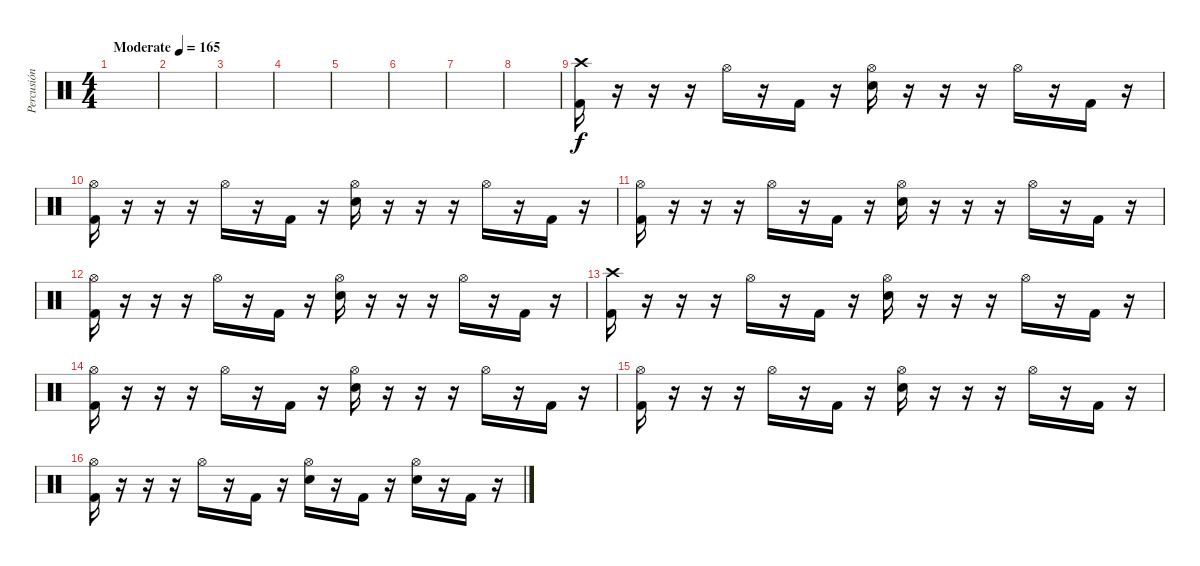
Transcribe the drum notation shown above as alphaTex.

\track ("Percusión" "Percusión") {instrument percussion}
\staff {score}
\articulation defaults
\ts (4 4)
\tempo (165 "Moderate")
\clef neutral
\ks c
|
|
|
|
|
|
|
|
("Crash high (hit)" "Kick (hit) 2").16 r.16 r.16 r.16 "Hi-Hat (open)".16 r.16 "Kick (hit) 2".16 r.16 ("Hi-Hat (open)" "Electric Snare (hit)").16 r.16 r.16 r.16 "Hi-Hat (open)".16 r.16 "Kick (hit) 2".16 r.16 |
("Hi-Hat (open)" "Kick (hit) 2").16 r.16 r.16 r.16 "Hi-Hat (open)".16 r.16 "Kick (hit) 2".16 r.16 ("Hi-Hat (open)" "Electric Snare (hit)").16 r.16 r.16 r.16 "Hi-Hat (open)".16 r.16 "Kick (hit) 2".16 r.16 |
("Hi-Hat (open)" "Kick (hit) 2").16 r.16 r.16 r.16 "Hi-Hat (open)".16 r.16 "Kick (hit) 2".16 r.16 ("Hi-Hat (open)" "Electric Snare (hit)").16 r.16 r.16 r.16 "Hi-Hat (open)".16 r.16 "Kick (hit) 2".16 r.16 |
("Hi-Hat (open)" "Kick (hit) 2").16 r.16 r.16 r.16 "Hi-Hat (open)".16 r.16 "Kick (hit) 2".16 r.16 ("Hi-Hat (open)" "Electric Snare (hit)").16 r.16 r.16 r.16 "Hi-Hat (open)".16 r.16 "Kick (hit) 2".16 r.16 |
("Crash high (hit)" "Kick (hit) 2").16 r.16 r.16 r.16 "Hi-Hat (open)".16 r.16 "Kick (hit) 2".16 r.16 ("Hi-Hat (open)" "Electric Snare (hit)").16 r.16 r.16 r.16 "Hi-Hat (open)".16 r.16 "Kick (hit) 2".16 r.16 |
("Hi-Hat (open)" "Kick (hit) 2").16 r.16 r.16 r.16 "Hi-Hat (open)".16 r.16 "Kick (hit) 2".16 r.16 ("Hi-Hat (open)" "Electric Snare (hit)").16 r.16 r.16 r.16 "Hi-Hat (open)".16 r.16 "Kick (hit) 2".16 r.16 |
("Hi-Hat (open)" "Kick (hit) 2").16 r.16 r.16 r.16 "Hi-Hat (open)".16 r.16 "Kick (hit) 2".16 r.16 ("Hi-Hat (open)" "Electric Snare (hit)").16 r.16 r.16 r.16 "Hi-Hat (open)".16 r.16 "Kick (hit) 2".16 r.16 |
("Hi-Hat (open)" "Kick (hit) 2").16 r.16 r.16 r.16 "Hi-Hat (open)".16 r.16 "Kick (hit) 2".16 r.16 ("Hi-Hat (open)" "Electric Snare (hit)").16 r.16 "Kick (hit) 2".16 r.16 ("Hi-Hat (open)" "Electric Snare (hit)").16 r.16 "Kick (hit) 2".16 r.16
